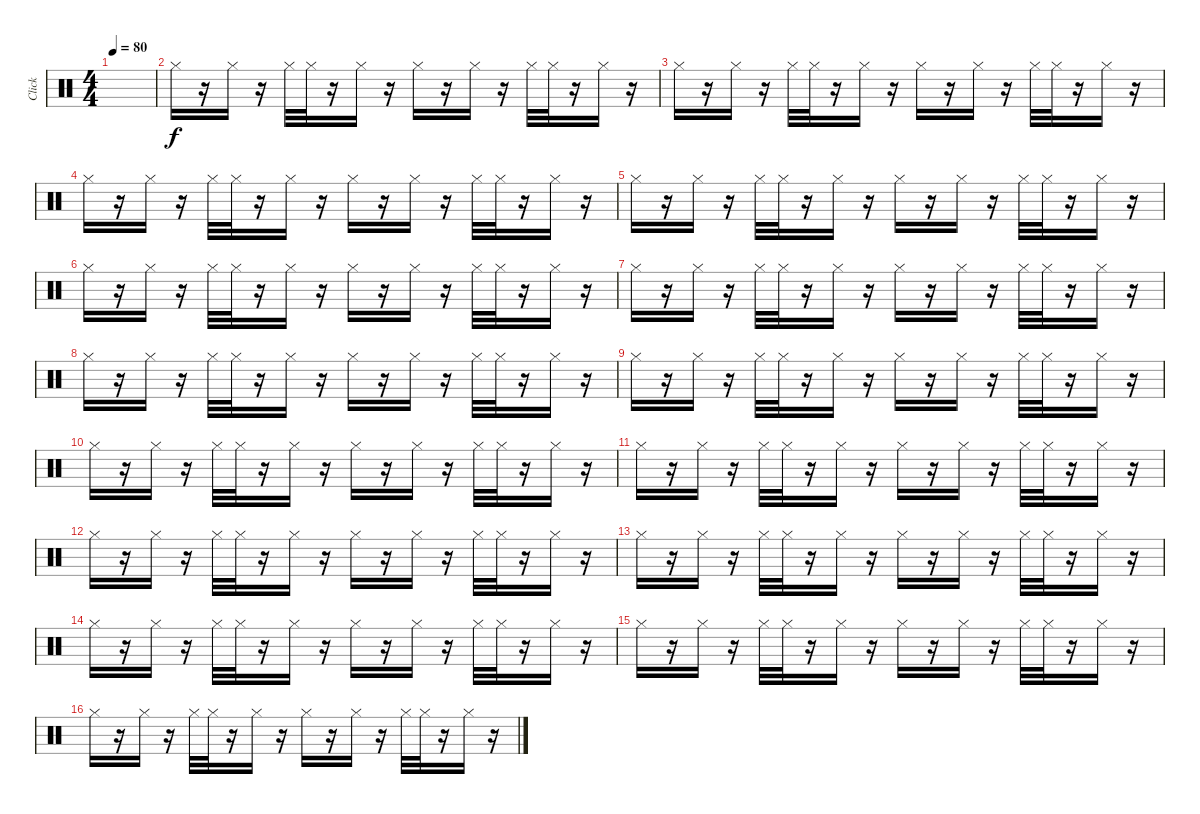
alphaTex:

\track ("Click" "Click") {instrument percussion}
\staff {score}
\articulation defaults
\ts (4 4)
\tempo 80
\clef neutral
\ks c
|
"Hi-Hat (closed)".16 r.16 "Hi-Hat (closed)".16 r.16 "Hi-Hat (closed)".32 "Hi-Hat (closed)".32 r.16 "Hi-Hat (closed)".16 r.16 "Hi-Hat (closed)".16 r.16 "Hi-Hat (closed)".16 r.16 "Hi-Hat (closed)".32 "Hi-Hat (closed)".32 r.16 "Hi-Hat (closed)".16 r.16 |
"Hi-Hat (closed)".16 r.16 "Hi-Hat (closed)".16 r.16 "Hi-Hat (closed)".32 "Hi-Hat (closed)".32 r.16 "Hi-Hat (closed)".16 r.16 "Hi-Hat (closed)".16 r.16 "Hi-Hat (closed)".16 r.16 "Hi-Hat (closed)".32 "Hi-Hat (closed)".32 r.16 "Hi-Hat (closed)".16 r.16 |
"Hi-Hat (closed)".16 r.16 "Hi-Hat (closed)".16 r.16 "Hi-Hat (closed)".32 "Hi-Hat (closed)".32 r.16 "Hi-Hat (closed)".16 r.16 "Hi-Hat (closed)".16 r.16 "Hi-Hat (closed)".16 r.16 "Hi-Hat (closed)".32 "Hi-Hat (closed)".32 r.16 "Hi-Hat (closed)".16 r.16 |
"Hi-Hat (closed)".16 r.16 "Hi-Hat (closed)".16 r.16 "Hi-Hat (closed)".32 "Hi-Hat (closed)".32 r.16 "Hi-Hat (closed)".16 r.16 "Hi-Hat (closed)".16 r.16 "Hi-Hat (closed)".16 r.16 "Hi-Hat (closed)".32 "Hi-Hat (closed)".32 r.16 "Hi-Hat (closed)".16 r.16 |
"Hi-Hat (closed)".16 r.16 "Hi-Hat (closed)".16 r.16 "Hi-Hat (closed)".32 "Hi-Hat (closed)".32 r.16 "Hi-Hat (closed)".16 r.16 "Hi-Hat (closed)".16 r.16 "Hi-Hat (closed)".16 r.16 "Hi-Hat (closed)".32 "Hi-Hat (closed)".32 r.16 "Hi-Hat (closed)".16 r.16 |
"Hi-Hat (closed)".16 r.16 "Hi-Hat (closed)".16 r.16 "Hi-Hat (closed)".32 "Hi-Hat (closed)".32 r.16 "Hi-Hat (closed)".16 r.16 "Hi-Hat (closed)".16 r.16 "Hi-Hat (closed)".16 r.16 "Hi-Hat (closed)".32 "Hi-Hat (closed)".32 r.16 "Hi-Hat (closed)".16 r.16 |
"Hi-Hat (closed)".16 r.16 "Hi-Hat (closed)".16 r.16 "Hi-Hat (closed)".32 "Hi-Hat (closed)".32 r.16 "Hi-Hat (closed)".16 r.16 "Hi-Hat (closed)".16 r.16 "Hi-Hat (closed)".16 r.16 "Hi-Hat (closed)".32 "Hi-Hat (closed)".32 r.16 "Hi-Hat (closed)".16 r.16 |
"Hi-Hat (closed)".16 r.16 "Hi-Hat (closed)".16 r.16 "Hi-Hat (closed)".32 "Hi-Hat (closed)".32 r.16 "Hi-Hat (closed)".16 r.16 "Hi-Hat (closed)".16 r.16 "Hi-Hat (closed)".16 r.16 "Hi-Hat (closed)".32 "Hi-Hat (closed)".32 r.16 "Hi-Hat (closed)".16 r.16 |
"Hi-Hat (closed)".16 r.16 "Hi-Hat (closed)".16 r.16 "Hi-Hat (closed)".32 "Hi-Hat (closed)".32 r.16 "Hi-Hat (closed)".16 r.16 "Hi-Hat (closed)".16 r.16 "Hi-Hat (closed)".16 r.16 "Hi-Hat (closed)".32 "Hi-Hat (closed)".32 r.16 "Hi-Hat (closed)".16 r.16 |
"Hi-Hat (closed)".16 r.16 "Hi-Hat (closed)".16 r.16 "Hi-Hat (closed)".32 "Hi-Hat (closed)".32 r.16 "Hi-Hat (closed)".16 r.16 "Hi-Hat (closed)".16 r.16 "Hi-Hat (closed)".16 r.16 "Hi-Hat (closed)".32 "Hi-Hat (closed)".32 r.16 "Hi-Hat (closed)".16 r.16 |
"Hi-Hat (closed)".16 r.16 "Hi-Hat (closed)".16 r.16 "Hi-Hat (closed)".32 "Hi-Hat (closed)".32 r.16 "Hi-Hat (closed)".16 r.16 "Hi-Hat (closed)".16 r.16 "Hi-Hat (closed)".16 r.16 "Hi-Hat (closed)".32 "Hi-Hat (closed)".32 r.16 "Hi-Hat (closed)".16 r.16 |
"Hi-Hat (closed)".16 r.16 "Hi-Hat (closed)".16 r.16 "Hi-Hat (closed)".32 "Hi-Hat (closed)".32 r.16 "Hi-Hat (closed)".16 r.16 "Hi-Hat (closed)".16 r.16 "Hi-Hat (closed)".16 r.16 "Hi-Hat (closed)".32 "Hi-Hat (closed)".32 r.16 "Hi-Hat (closed)".16 r.16 |
"Hi-Hat (closed)".16 r.16 "Hi-Hat (closed)".16 r.16 "Hi-Hat (closed)".32 "Hi-Hat (closed)".32 r.16 "Hi-Hat (closed)".16 r.16 "Hi-Hat (closed)".16 r.16 "Hi-Hat (closed)".16 r.16 "Hi-Hat (closed)".32 "Hi-Hat (closed)".32 r.16 "Hi-Hat (closed)".16 r.16 |
"Hi-Hat (closed)".16 r.16 "Hi-Hat (closed)".16 r.16 "Hi-Hat (closed)".32 "Hi-Hat (closed)".32 r.16 "Hi-Hat (closed)".16 r.16 "Hi-Hat (closed)".16 r.16 "Hi-Hat (closed)".16 r.16 "Hi-Hat (closed)".32 "Hi-Hat (closed)".32 r.16 "Hi-Hat (closed)".16 r.16 |
"Hi-Hat (closed)".16 r.16 "Hi-Hat (closed)".16 r.16 "Hi-Hat (closed)".32 "Hi-Hat (closed)".32 r.16 "Hi-Hat (closed)".16 r.16 "Hi-Hat (closed)".16 r.16 "Hi-Hat (closed)".16 r.16 "Hi-Hat (closed)".32 "Hi-Hat (closed)".32 r.16 "Hi-Hat (closed)".16 r.16
